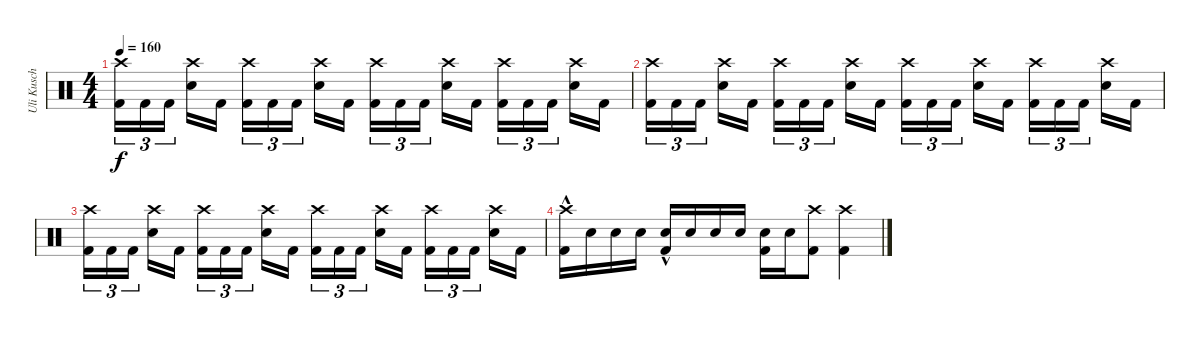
\track ("Uli Kusch" "Uli Kusch") {instrument percussion}
\staff {score}
\articulation defaults
\ts (4 4)
\tempo 160
\clef neutral
\ks c
("Kick (hit) 2" "Crash high (hit)").16{tu (3 2) dy f} "Kick (hit) 2".16{tu (3 2)} "Kick (hit) 2".16{tu (3 2)} ("Crash high (hit)" "Snare (hit) 2").16 "Kick (hit) 2".16 ("Kick (hit) 2" "Crash high (hit)").16{tu (3 2)} "Kick (hit) 2".16{tu (3 2)} "Kick (hit) 2".16{tu (3 2)} ("Crash high (hit)" "Snare (hit) 2").16 "Kick (hit) 2".16 ("Kick (hit) 2" "Crash high (hit)").16{tu (3 2)} "Kick (hit) 2".16{tu (3 2)} "Kick (hit) 2".16{tu (3 2)} ("Crash high (hit)" "Snare (hit) 2").16 "Kick (hit) 2".16 ("Kick (hit) 2" "Crash high (hit)").16{tu (3 2)} "Kick (hit) 2".16{tu (3 2)} "Kick (hit) 2".16{tu (3 2)} ("Crash high (hit)" "Snare (hit) 2").16 "Kick (hit) 2".16 |
("Kick (hit) 2" "Crash high (hit)").16{tu (3 2)} "Kick (hit) 2".16{tu (3 2)} "Kick (hit) 2".16{tu (3 2)} ("Crash high (hit)" "Snare (hit) 2").16 "Kick (hit) 2".16 ("Kick (hit) 2" "Crash high (hit)").16{tu (3 2)} "Kick (hit) 2".16{tu (3 2)} "Kick (hit) 2".16{tu (3 2)} ("Crash high (hit)" "Snare (hit) 2").16 "Kick (hit) 2".16 ("Kick (hit) 2" "Crash high (hit)").16{tu (3 2)} "Kick (hit) 2".16{tu (3 2)} "Kick (hit) 2".16{tu (3 2)} ("Crash high (hit)" "Snare (hit) 2").16 "Kick (hit) 2".16 ("Kick (hit) 2" "Crash high (hit)").16{tu (3 2)} "Kick (hit) 2".16{tu (3 2)} "Kick (hit) 2".16{tu (3 2)} ("Crash high (hit)" "Snare (hit) 2").16 "Kick (hit) 2".16 |
("Kick (hit) 2" "Crash high (hit)").16{tu (3 2)} "Kick (hit) 2".16{tu (3 2)} "Kick (hit) 2".16{tu (3 2)} ("Crash high (hit)" "Snare (hit) 2").16 "Kick (hit) 2".16 ("Kick (hit) 2" "Crash high (hit)").16{tu (3 2)} "Kick (hit) 2".16{tu (3 2)} "Kick (hit) 2".16{tu (3 2)} ("Crash high (hit)" "Snare (hit) 2").16 "Kick (hit) 2".16 ("Kick (hit) 2" "Crash high (hit)").16{tu (3 2)} "Kick (hit) 2".16{tu (3 2)} "Kick (hit) 2".16{tu (3 2)} ("Crash high (hit)" "Snare (hit) 2").16 "Kick (hit) 2".16 ("Kick (hit) 2" "Crash high (hit)").16{tu (3 2)} "Kick (hit) 2".16{tu (3 2)} "Kick (hit) 2".16{tu (3 2)} ("Crash high (hit)" "Snare (hit) 2").16 "Kick (hit) 2".16 |
("Kick (hit) 2"{hac} "Crash high (hit)").16 "Snare (hit) 2".16 "Snare (hit) 2".16 "Snare (hit) 2".16 ("Kick (hit) 2"{hac} "Snare (hit) 2").16 "Snare (hit) 2".16 "Snare (hit) 2".16 "Snare (hit) 2".16 ("Kick (hit) 2" "Snare (hit) 2").16 "Snare (hit) 2".16 ("Kick (hit) 2" "Crash high (hit)").8 ("Kick (hit) 2" "Crash high (hit)").4
